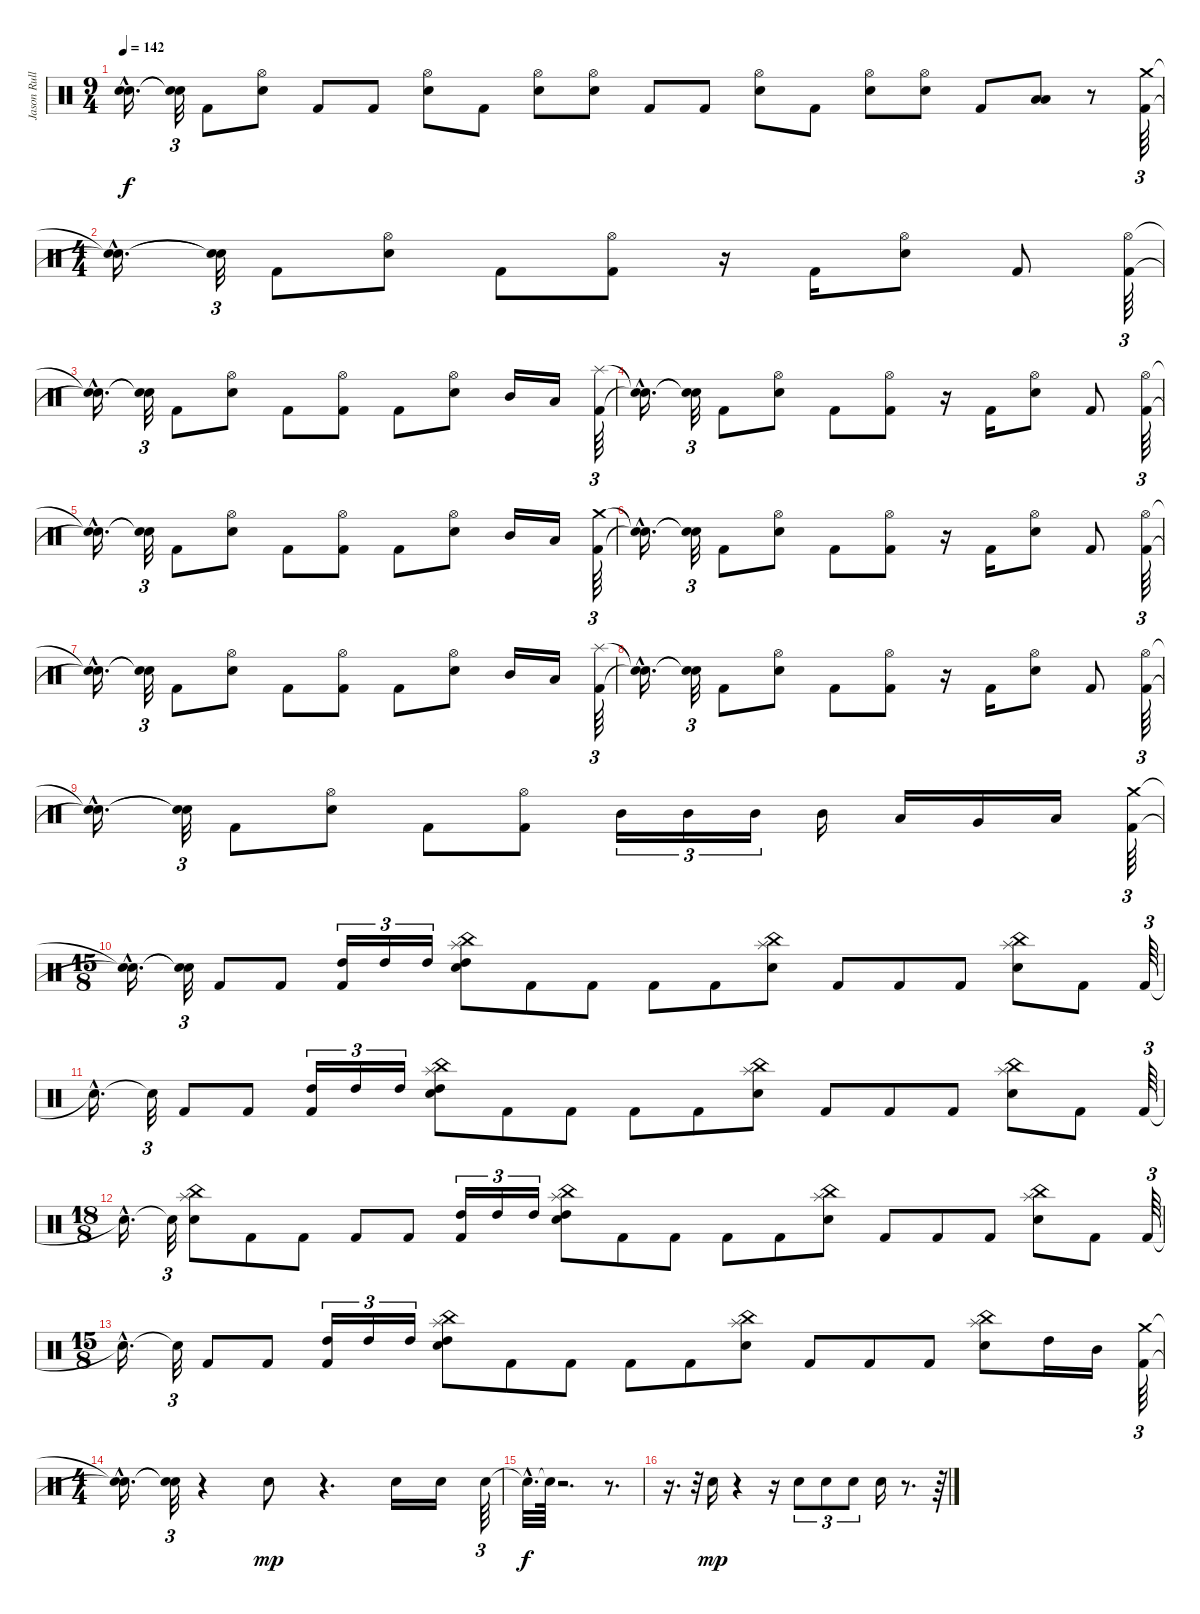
\track ("Jason Rullo" "Jason Rull") {instrument percussion}
\staff {score}
\articulation defaults
\ts (9 4)
\tempo 142
\clef neutral
\ks c
("Snare (hit)"{hac t} "Snare (hit)"{hac t}).16{d dy f} ("Snare (hit)"{t} "Snare (hit)"{t}).32{tu (3 2)} "Kick (hit) 2".8 ("Hi-Hat (open)" "Electric Snare (hit)").8 "Kick (hit) 2".8 "Kick (hit) 2".8 ("Hi-Hat (open)" "Electric Snare (hit)").8 "Kick (hit) 2".8 ("Hi-Hat (open)" "Electric Snare (hit)").8 ("Hi-Hat (open)" "Electric Snare (hit)").8 "Kick (hit) 2".8 "Kick (hit) 2".8 ("Hi-Hat (open)" "Electric Snare (hit)").8 "Kick (hit) 2".8 ("Hi-Hat (open)" "Electric Snare (hit)").8 ("Hi-Hat (open)" "Electric Snare (hit)").8 "Kick (hit) 2".8 ("Low Tom (hit)" "Low Floor Tom (hit)").8 r.8 ("Crash medium (hit)" "Kick (hit) 2").64{tu (3 2)} |
\ts (4 4)
("Snare (hit)"{hac t} "Snare (hit)"{hac t}).16{d} ("Snare (hit)"{t} "Snare (hit)"{t}).32{tu (3 2)} "Kick (hit) 2".8 ("Hi-Hat (open)" "Electric Snare (hit)").8 "Kick (hit) 2".8 ("Hi-Hat (open)" "Kick (hit) 2").8 r.16 "Kick (hit) 2".16 ("Hi-Hat (open)" "Electric Snare (hit)").8 "Kick (hit) 2".8 ("Hi-Hat (open)" "Kick (hit) 2").64{tu (3 2)} |
("Snare (hit)"{hac t} "Snare (hit)"{hac t}).16{d} ("Snare (hit)"{t} "Snare (hit)"{t}).32{tu (3 2)} "Kick (hit) 2".8 ("Hi-Hat (open)" "Electric Snare (hit)").8 "Kick (hit) 2".8 ("Hi-Hat (open)" "Kick (hit) 2").8 "Kick (hit) 2".8 ("Hi-Hat (open)" "Electric Snare (hit)").8 "Mid Tom (hit)".16 "Low Tom (hit)".16 ("Splash (hit)" "Kick (hit) 2").64{tu (3 2)} |
("Snare (hit)"{hac t} "Snare (hit)"{hac t}).16{d} ("Snare (hit)"{t} "Snare (hit)"{t}).32{tu (3 2)} "Kick (hit) 2".8 ("Hi-Hat (open)" "Electric Snare (hit)").8 "Kick (hit) 2".8 ("Hi-Hat (open)" "Kick (hit) 2").8 r.16 "Kick (hit) 2".16 ("Hi-Hat (open)" "Electric Snare (hit)").8 "Kick (hit) 2".8 ("Hi-Hat (open)" "Kick (hit) 2").64{tu (3 2)} |
("Snare (hit)"{hac t} "Snare (hit)"{hac t}).16{d} ("Snare (hit)"{t} "Snare (hit)"{t}).32{tu (3 2)} "Kick (hit) 2".8 ("Hi-Hat (open)" "Electric Snare (hit)").8 "Kick (hit) 2".8 ("Hi-Hat (open)" "Kick (hit) 2").8 "Kick (hit) 2".8 ("Hi-Hat (open)" "Electric Snare (hit)").8 "Mid Tom (hit)".16 "Low Tom (hit)".16 ("Crash medium (hit)" "Kick (hit) 2").64{tu (3 2)} |
("Snare (hit)"{hac t} "Snare (hit)"{hac t}).16{d} ("Snare (hit)"{t} "Snare (hit)"{t}).32{tu (3 2)} "Kick (hit) 2".8 ("Hi-Hat (open)" "Electric Snare (hit)").8 "Kick (hit) 2".8 ("Hi-Hat (open)" "Kick (hit) 2").8 r.16 "Kick (hit) 2".16 ("Hi-Hat (open)" "Electric Snare (hit)").8 "Kick (hit) 2".8 ("Hi-Hat (open)" "Kick (hit) 2").64{tu (3 2)} |
("Snare (hit)"{hac t} "Snare (hit)"{hac t}).16{d} ("Snare (hit)"{t} "Snare (hit)"{t}).32{tu (3 2)} "Kick (hit) 2".8 ("Hi-Hat (open)" "Electric Snare (hit)").8 "Kick (hit) 2".8 ("Hi-Hat (open)" "Kick (hit) 2").8 "Kick (hit) 2".8 ("Hi-Hat (open)" "Electric Snare (hit)").8 "Mid Tom (hit)".16 "Low Tom (hit)".16 ("Splash (hit)" "Kick (hit) 2").64{tu (3 2)} |
("Snare (hit)"{hac t} "Snare (hit)"{hac t}).16{d} ("Snare (hit)"{t} "Snare (hit)"{t}).32{tu (3 2)} "Kick (hit) 2".8 ("Hi-Hat (open)" "Electric Snare (hit)").8 "Kick (hit) 2".8 ("Hi-Hat (open)" "Kick (hit) 2").8 r.16 "Kick (hit) 2".16 ("Hi-Hat (open)" "Electric Snare (hit)").8 "Kick (hit) 2".8 ("Hi-Hat (open)" "Kick (hit) 2").64{tu (3 2)} |
("Snare (hit)"{hac t} "Snare (hit)"{hac t}).16{d} ("Snare (hit)"{t} "Snare (hit)"{t}).32{tu (3 2)} "Kick (hit) 2".8 ("Hi-Hat (open)" "Electric Snare (hit)").8 "Kick (hit) 2".8 ("Hi-Hat (open)" "Kick (hit) 2").8 "Mid Tom (hit)".16{tu (3 2)} "Mid Tom (hit)".16{tu (3 2)} "Mid Tom (hit)".16{tu (3 2)} "Mid Tom (hit)".16 "Low Tom (hit)".16 "Very Low Tom (hit)".16 "Low Floor Tom (hit)".16 ("Crash medium (hit)" "Kick (hit) 2").64{tu (3 2)} |
\ts (15 8)
("Snare (hit)"{hac t} "Snare (hit)"{hac t}).16{d} ("Snare (hit)"{t} "Snare (hit)"{t}).32{tu (3 2)} "Kick (hit) 2".8 "Kick (hit) 2".8 ("High Tom (hit)" "Kick (hit) 2").16{tu (3 2)} "High Tom (hit)".16{tu (3 2)} "High Tom (hit)".16{tu (3 2)} ("High Tom (hit)" "Splash (hit)" "China (hit)" "Electric Snare (hit)").8 "Kick (hit) 2".8 "Kick (hit) 2".8 "Kick (hit) 2".8 "Kick (hit) 2".8 ("Splash (hit)" "China (hit)" "Electric Snare (hit)").8 "Kick (hit) 2".8 "Kick (hit) 2".8 "Kick (hit) 2".8 ("Splash (hit)" "China (hit)" "Electric Snare (hit)").8 "Kick (hit) 2".8 "Kick (hit) 2".64{tu (3 2)} |
"Snare (hit)"{hac t}.16{d} "Snare (hit)"{t}.32{tu (3 2)} "Kick (hit) 2".8 "Kick (hit) 2".8 ("High Tom (hit)" "Kick (hit) 2").16{tu (3 2)} "High Tom (hit)".16{tu (3 2)} "High Tom (hit)".16{tu (3 2)} ("High Tom (hit)" "Splash (hit)" "China (hit)" "Electric Snare (hit)").8 "Kick (hit) 2".8 "Kick (hit) 2".8 "Kick (hit) 2".8 "Kick (hit) 2".8 ("Splash (hit)" "China (hit)" "Electric Snare (hit)").8 "Kick (hit) 2".8 "Kick (hit) 2".8 "Kick (hit) 2".8 ("Splash (hit)" "China (hit)" "Electric Snare (hit)").8 "Kick (hit) 2".8 "Kick (hit) 2".64{tu (3 2)} |
\ts (18 8)
"Snare (hit)"{hac t}.16{d} "Snare (hit)"{t}.32{tu (3 2)} ("Splash (hit)" "China (hit)" "Electric Snare (hit)").8 "Kick (hit) 2".8 "Kick (hit) 2".8 "Kick (hit) 2".8 "Kick (hit) 2".8 ("High Tom (hit)" "Kick (hit) 2").16{tu (3 2)} "High Tom (hit)".16{tu (3 2)} "High Tom (hit)".16{tu (3 2)} ("High Tom (hit)" "Splash (hit)" "China (hit)" "Electric Snare (hit)").8 "Kick (hit) 2".8 "Kick (hit) 2".8 "Kick (hit) 2".8 "Kick (hit) 2".8 ("Splash (hit)" "China (hit)" "Electric Snare (hit)").8 "Kick (hit) 2".8 "Kick (hit) 2".8 "Kick (hit) 2".8 ("Splash (hit)" "China (hit)" "Electric Snare (hit)").8 "Kick (hit) 2".8 "Kick (hit) 2".64{tu (3 2)} |
\ts (15 8)
"Snare (hit)"{hac t}.16{d} "Snare (hit)"{t}.32{tu (3 2)} "Kick (hit) 2".8 "Kick (hit) 2".8 ("High Tom (hit)" "Kick (hit) 2").16{tu (3 2)} "High Tom (hit)".16{tu (3 2)} "High Tom (hit)".16{tu (3 2)} ("High Tom (hit)" "Splash (hit)" "China (hit)" "Electric Snare (hit)").8 "Kick (hit) 2".8 "Kick (hit) 2".8 "Kick (hit) 2".8 "Kick (hit) 2".8 ("Splash (hit)" "China (hit)" "Electric Snare (hit)").8 "Kick (hit) 2".8 "Kick (hit) 2".8 "Kick (hit) 2".8 ("Splash (hit)" "China (hit)" "Electric Snare (hit)").8 "High Tom (hit)".16 "Mid Tom (hit)".16 ("Crash medium (hit)" "Kick (hit) 2").64{tu (3 2)} |
\ts (4 4)
("Snare (hit)"{hac t} "Snare (hit)"{hac t}).16{d} ("Snare (hit)"{t} "Snare (hit)"{t}).32{tu (3 2)} r.4 "Electric Snare (hit)".8{dy mp} r.4{d} "Electric Snare (hit)".16 "Electric Snare (hit)".16 "Electric Snare (hit)".64{tu (3 2)} |
"Snare (hit)"{hac t}.32{d dy f} "Snare (hit)"{t}.64 r.2{d} r.8{d} |
r.16{d} r.32{tu (3 2)} "Electric Snare (hit)".16{dy mp} r.4 r.16 "Electric Snare (hit)".8{tu (3 2)} "Electric Snare (hit)".8{tu (3 2)} "Electric Snare (hit)".8{tu (3 2)} "Electric Snare (hit)".16 r.8{d} r.64{tu (3 2)}
